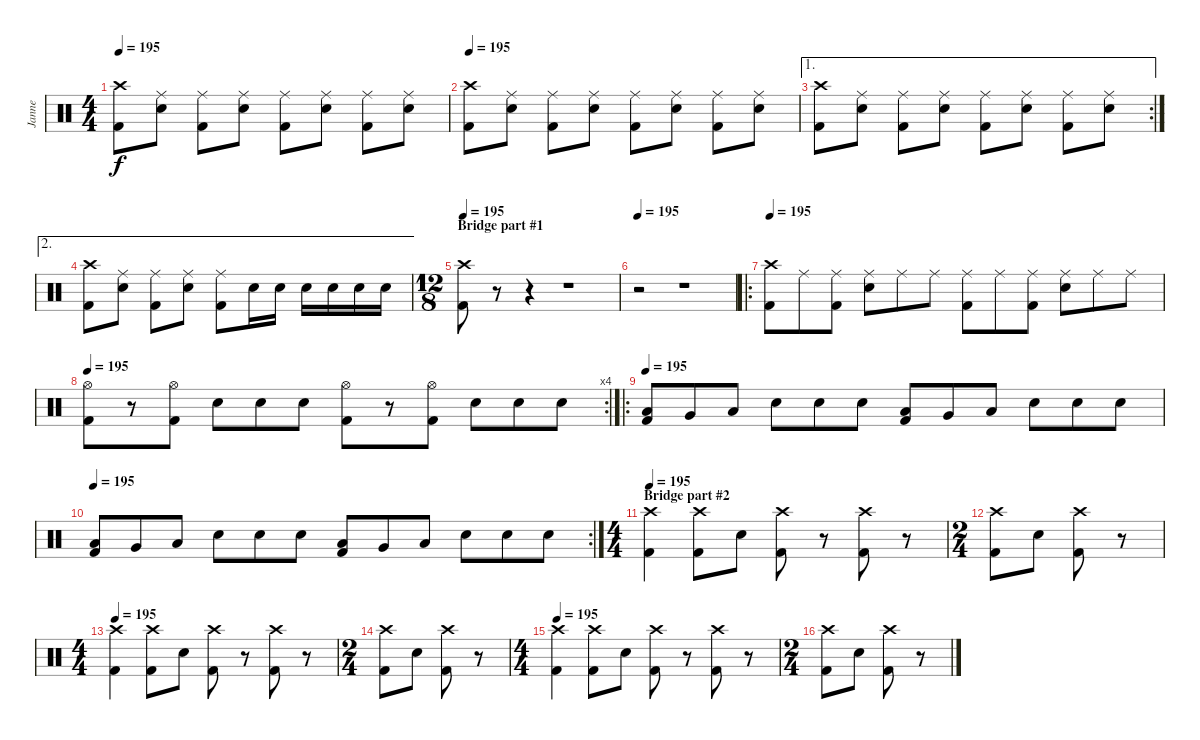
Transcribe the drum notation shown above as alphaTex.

\track ("Janne" "Janne") {instrument percussion}
\staff {score}
\articulation defaults
\ts (4 4)
\tempo 195
\clef neutral
\ks c
("Crash high (hit)" "Kick (hit) 2").8{dy f} ("Ride (middle)" "Electric Snare (hit)").8 ("Ride (middle)" "Kick (hit) 2").8 ("Ride (middle)" "Electric Snare (hit)").8 ("Ride (middle)" "Kick (hit) 2").8 ("Ride (middle)" "Electric Snare (hit)").8 ("Ride (middle)" "Kick (hit) 2").8 ("Ride (middle)" "Electric Snare (hit)").8 |
\tempo 195
("Crash high (hit)" "Kick (hit) 2").8 ("Ride (middle)" "Electric Snare (hit)").8 ("Ride (middle)" "Kick (hit) 2").8 ("Ride (middle)" "Electric Snare (hit)").8 ("Ride (middle)" "Kick (hit) 2").8 ("Ride (middle)" "Electric Snare (hit)").8 ("Ride (middle)" "Kick (hit) 2").8 ("Ride (middle)" "Electric Snare (hit)").8 |
\ae 1
\rc 2
("Crash high (hit)" "Kick (hit) 2").8 ("Ride (middle)" "Electric Snare (hit)").8 ("Ride (middle)" "Kick (hit) 2").8 ("Ride (middle)" "Electric Snare (hit)").8 ("Ride (middle)" "Kick (hit) 2").8 ("Ride (middle)" "Electric Snare (hit)").8 ("Ride (middle)" "Kick (hit) 2").8 ("Ride (middle)" "Electric Snare (hit)").8 |
\ae 2
("Crash high (hit)" "Kick (hit) 2").8 ("Ride (middle)" "Electric Snare (hit)").8 ("Ride (middle)" "Kick (hit) 2").8 ("Ride (middle)" "Electric Snare (hit)").8 ("Ride (middle)" "Kick (hit) 2").8 "Electric Snare (hit)".16 "Electric Snare (hit)".16 "Electric Snare (hit)".16 "Electric Snare (hit)".16 "Electric Snare (hit)".16 "Electric Snare (hit)".16 |
\ts (12 8)
\section ("" "Bridge part #1")
\tempo 195
("Crash high (hit)" "Kick (hit) 2").8 r.8 r.4 r.1 |
\tempo 195
r.2 r.1 |
\ro
\tempo 195
("Crash high (hit)" "Kick (hit) 2").8 "Ride (middle)".8 ("Ride (middle)" "Kick (hit) 2").8 ("Ride (middle)" "Electric Snare (hit)").8 "Ride (middle)".8 "Ride (middle)".8 ("Ride (middle)" "Kick (hit) 2").8 "Ride (middle)".8 ("Ride (middle)" "Kick (hit) 2").8 ("Ride (middle)" "Electric Snare (hit)").8 "Ride (middle)".8 "Ride (middle)".8 |
\rc 4
\tempo 195
("Hi-Hat (open)" "Kick (hit) 2").8 r.8 ("Hi-Hat (open)" "Kick (hit) 2").8 "Electric Snare (hit)".8 "Electric Snare (hit)".8 "Electric Snare (hit)".8 ("Hi-Hat (open)" "Kick (hit) 2").8 r.8 ("Hi-Hat (open)" "Kick (hit) 2").8 "Electric Snare (hit)".8 "Electric Snare (hit)".8 "Electric Snare (hit)".8 |
\ro
\tempo 195
("Low Tom (hit)" "Kick (hit) 2").8 "Very Low Tom (hit)".8 "Low Floor Tom (hit)".8 "Electric Snare (hit)".8 "Electric Snare (hit)".8 "Electric Snare (hit)".8 ("Low Tom (hit)" "Kick (hit) 2").8 "Very Low Tom (hit)".8 "Low Floor Tom (hit)".8 "Electric Snare (hit)".8 "Electric Snare (hit)".8 "Electric Snare (hit)".8 |
\rc 2
\tempo 195
("Low Tom (hit)" "Kick (hit) 2").8 "Very Low Tom (hit)".8 "Low Floor Tom (hit)".8 "Electric Snare (hit)".8 "Electric Snare (hit)".8 "Electric Snare (hit)".8 ("Low Tom (hit)" "Kick (hit) 2").8 "Very Low Tom (hit)".8 "Low Floor Tom (hit)".8 "Electric Snare (hit)".8 "Electric Snare (hit)".8 "Electric Snare (hit)".8 |
\ts (4 4)
\section ("" "Bridge part #2")
\tempo 195
("Crash high (hit)" "Kick (hit) 2").4 ("Crash high (hit)" "Kick (hit) 2").8 "Electric Snare (hit)".8 ("Crash high (hit)" "Kick (hit) 2").8 r.8 ("Crash high (hit)" "Kick (hit) 2").8 r.8 |
\ts (2 4)
("Crash high (hit)" "Kick (hit) 2").8 "Electric Snare (hit)".8 ("Crash high (hit)" "Kick (hit) 2").8 r.8 |
\ts (4 4)
\tempo 195
("Crash high (hit)" "Kick (hit) 2").4 ("Crash high (hit)" "Kick (hit) 2").8 "Electric Snare (hit)".8 ("Crash high (hit)" "Kick (hit) 2").8 r.8 ("Crash high (hit)" "Kick (hit) 2").8 r.8 |
\ts (2 4)
("Crash high (hit)" "Kick (hit) 2").8 "Electric Snare (hit)".8 ("Crash high (hit)" "Kick (hit) 2").8 r.8 |
\ts (4 4)
\tempo 195
("Crash high (hit)" "Kick (hit) 2").4 ("Crash high (hit)" "Kick (hit) 2").8 "Electric Snare (hit)".8 ("Crash high (hit)" "Kick (hit) 2").8 r.8 ("Crash high (hit)" "Kick (hit) 2").8 r.8 |
\ts (2 4)
("Crash high (hit)" "Kick (hit) 2").8 "Electric Snare (hit)".8 ("Crash high (hit)" "Kick (hit) 2").8 r.8
